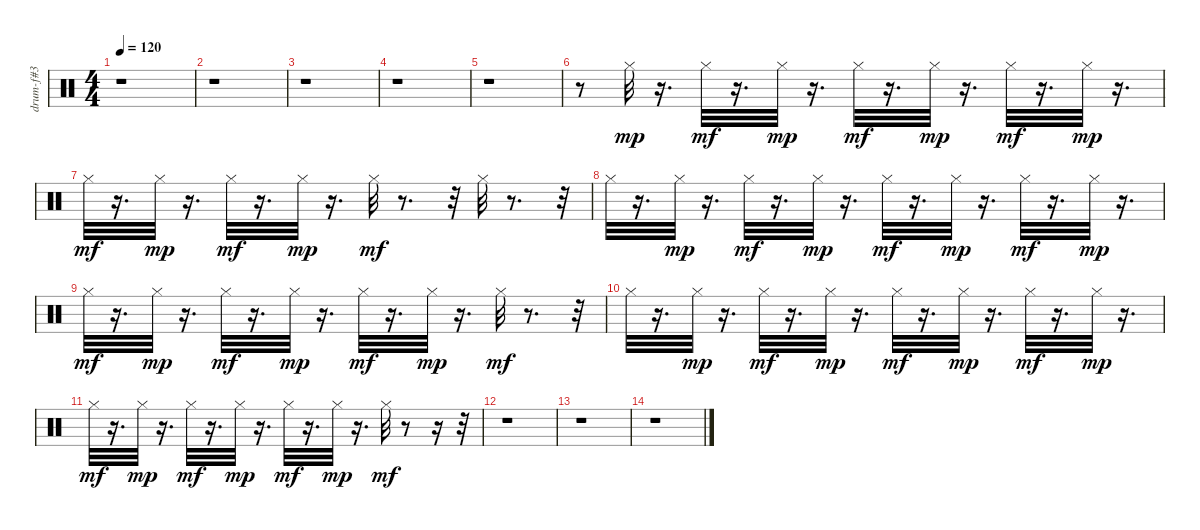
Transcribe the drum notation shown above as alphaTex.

\track ("drum-f#3" "drum-f#3") {instrument percussion}
\staff {score}
\articulation defaults
\ts (4 4)
\tempo 120
\clef neutral
\ks c
r.1{dy mp} |
r.1 |
r.1 |
r.1 |
r.1 |
r.8 "Hi-Hat (closed)".32 r.16{d} "Hi-Hat (closed)".32{dy mf} r.16{d} "Hi-Hat (closed)".32{dy mp} r.16{d} "Hi-Hat (closed)".32{dy mf} r.16{d} "Hi-Hat (closed)".32{dy mp} r.16{d} "Hi-Hat (closed)".32{dy mf} r.16{d} "Hi-Hat (closed)".32{dy mp} r.16{d} |
"Hi-Hat (closed)".32{dy mf} r.16{d} "Hi-Hat (closed)".32{dy mp} r.16{d} "Hi-Hat (closed)".32{dy mf} r.16{d} "Hi-Hat (closed)".32{dy mp} r.16{d} "Hi-Hat (closed)".32{dy mf} r.8{d} r.32 "Hi-Hat (closed)".32 r.8{d} r.32 |
"Hi-Hat (closed)".32 r.16{d} "Hi-Hat (closed)".32{dy mp} r.16{d} "Hi-Hat (closed)".32{dy mf} r.16{d} "Hi-Hat (closed)".32{dy mp} r.16{d} "Hi-Hat (closed)".32{dy mf} r.16{d} "Hi-Hat (closed)".32{dy mp} r.16{d} "Hi-Hat (closed)".32{dy mf} r.16{d} "Hi-Hat (closed)".32{dy mp} r.16{d} |
"Hi-Hat (closed)".32{dy mf} r.16{d} "Hi-Hat (closed)".32{dy mp} r.16{d} "Hi-Hat (closed)".32{dy mf} r.16{d} "Hi-Hat (closed)".32{dy mp} r.16{d} "Hi-Hat (closed)".32{dy mf} r.16{d} "Hi-Hat (closed)".32{dy mp} r.16{d} "Hi-Hat (closed)".32{dy mf} r.8{d} r.32 |
"Hi-Hat (closed)".32 r.16{d} "Hi-Hat (closed)".32{dy mp} r.16{d} "Hi-Hat (closed)".32{dy mf} r.16{d} "Hi-Hat (closed)".32{dy mp} r.16{d} "Hi-Hat (closed)".32{dy mf} r.16{d} "Hi-Hat (closed)".32{dy mp} r.16{d} "Hi-Hat (closed)".32{dy mf} r.16{d} "Hi-Hat (closed)".32{dy mp} r.16{d} |
"Hi-Hat (closed)".32{dy mf} r.16{d} "Hi-Hat (closed)".32{dy mp} r.16{d} "Hi-Hat (closed)".32{dy mf} r.16{d} "Hi-Hat (closed)".32{dy mp} r.16{d} "Hi-Hat (closed)".32{dy mf} r.16{d} "Hi-Hat (closed)".32{dy mp} r.16{d} "Hi-Hat (closed)".32{dy mf} r.8 r.16 r.32 |
r.1 |
r.1 |
r.1
